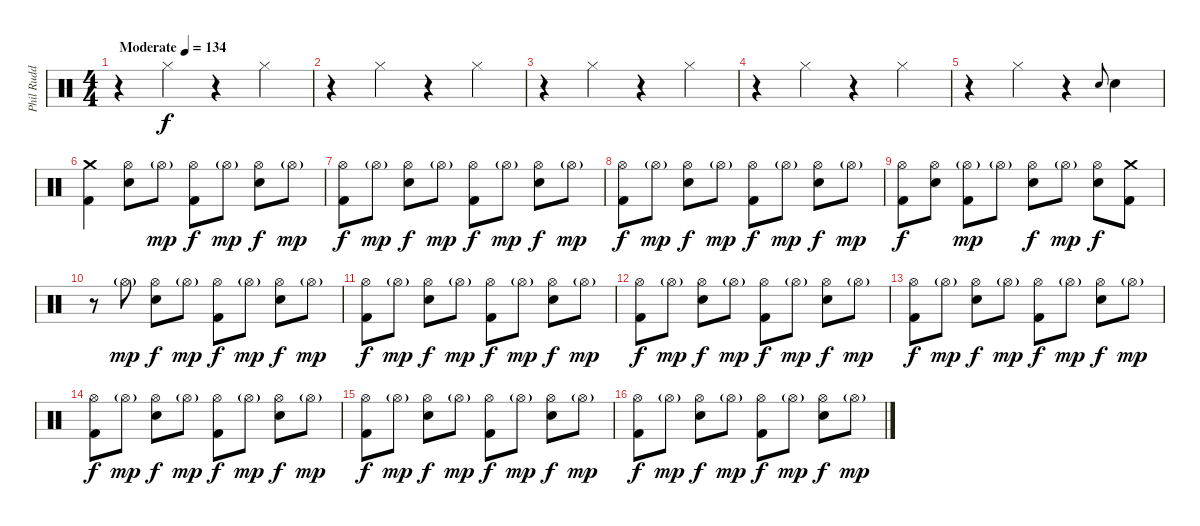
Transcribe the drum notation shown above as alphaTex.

\track ("Phil Rudd" "Phil Rudd") {instrument percussion}
\staff {score}
\articulation defaults
\ts (4 4)
\tempo (134 "Moderate")
\clef neutral
\ks c
r.4{dy f} "Hi-Hat (closed)".4 r.4 "Hi-Hat (closed)".4 |
r.4 "Hi-Hat (closed)".4 r.4 "Hi-Hat (closed)".4 |
r.4 "Hi-Hat (closed)".4 r.4 "Hi-Hat (closed)".4 |
r.4 "Hi-Hat (closed)".4 r.4 "Hi-Hat (closed)".4 |
r.4 "Hi-Hat (closed)".4 r.4 "Snare (hit) 2".8{gr onbeat} "Snare (hit) 2".4 |
("Crash medium (hit)" "Kick (hit) 2").4 ("Hi-Hat (open)" "Snare (hit) 2").8 "Hi-Hat (open)"{g}.8{dy mp} ("Hi-Hat (open)" "Kick (hit) 2").8{dy f} "Hi-Hat (open)"{g}.8{dy mp} ("Hi-Hat (open)" "Snare (hit) 2").8{dy f} "Hi-Hat (open)"{g}.8{dy mp} |
("Hi-Hat (open)" "Kick (hit) 2").8{dy f} "Hi-Hat (open)"{g}.8{dy mp} ("Hi-Hat (open)" "Snare (hit) 2").8{dy f} "Hi-Hat (open)"{g}.8{dy mp} ("Hi-Hat (open)" "Kick (hit) 2").8{dy f} "Hi-Hat (open)"{g}.8{dy mp} ("Hi-Hat (open)" "Snare (hit) 2").8{dy f} "Hi-Hat (open)"{g}.8{dy mp} |
("Hi-Hat (open)" "Kick (hit) 2").8{dy f} "Hi-Hat (open)"{g}.8{dy mp} ("Hi-Hat (open)" "Snare (hit) 2").8{dy f} "Hi-Hat (open)"{g}.8{dy mp} ("Hi-Hat (open)" "Kick (hit) 2").8{dy f} "Hi-Hat (open)"{g}.8{dy mp} ("Hi-Hat (open)" "Snare (hit) 2").8{dy f} "Hi-Hat (open)"{g}.8{dy mp} |
("Hi-Hat (open)" "Kick (hit) 2").8{dy f} ("Hi-Hat (open)" "Snare (hit) 2").8 ("Hi-Hat (open)"{g} "Kick (hit) 2").8{dy mp} "Hi-Hat (open)"{g}.8 ("Hi-Hat (open)" "Snare (hit) 2").8{dy f} "Hi-Hat (open)"{g}.8{dy mp} ("Hi-Hat (open)" "Snare (hit) 2").8{dy f} ("Crash medium (hit)" "Kick (hit) 2").8 |
r.8 "Hi-Hat (open)"{g}.8{dy mp} ("Hi-Hat (open)" "Snare (hit) 2").8{dy f} "Hi-Hat (open)"{g}.8{dy mp} ("Hi-Hat (open)" "Kick (hit) 2").8{dy f} "Hi-Hat (open)"{g}.8{dy mp} ("Hi-Hat (open)" "Snare (hit) 2").8{dy f} "Hi-Hat (open)"{g}.8{dy mp} |
("Hi-Hat (open)" "Kick (hit) 2").8{dy f} "Hi-Hat (open)"{g}.8{dy mp} ("Hi-Hat (open)" "Snare (hit) 2").8{dy f} "Hi-Hat (open)"{g}.8{dy mp} ("Hi-Hat (open)" "Kick (hit) 2").8{dy f} "Hi-Hat (open)"{g}.8{dy mp} ("Hi-Hat (open)" "Snare (hit) 2").8{dy f} "Hi-Hat (open)"{g}.8{dy mp} |
("Hi-Hat (open)" "Kick (hit) 2").8{dy f} "Hi-Hat (open)"{g}.8{dy mp} ("Hi-Hat (open)" "Snare (hit) 2").8{dy f} "Hi-Hat (open)"{g}.8{dy mp} ("Hi-Hat (open)" "Kick (hit) 2").8{dy f} "Hi-Hat (open)"{g}.8{dy mp} ("Hi-Hat (open)" "Snare (hit) 2").8{dy f} "Hi-Hat (open)"{g}.8{dy mp} |
("Hi-Hat (open)" "Kick (hit) 2").8{dy f} "Hi-Hat (open)"{g}.8{dy mp} ("Hi-Hat (open)" "Snare (hit) 2").8{dy f} "Hi-Hat (open)"{g}.8{dy mp} ("Hi-Hat (open)" "Kick (hit) 2").8{dy f} "Hi-Hat (open)"{g}.8{dy mp} ("Hi-Hat (open)" "Snare (hit) 2").8{dy f} "Hi-Hat (open)"{g}.8{dy mp} |
("Hi-Hat (open)" "Kick (hit) 2").8{dy f} "Hi-Hat (open)"{g}.8{dy mp} ("Hi-Hat (open)" "Snare (hit) 2").8{dy f} "Hi-Hat (open)"{g}.8{dy mp} ("Hi-Hat (open)" "Kick (hit) 2").8{dy f} "Hi-Hat (open)"{g}.8{dy mp} ("Hi-Hat (open)" "Snare (hit) 2").8{dy f} "Hi-Hat (open)"{g}.8{dy mp} |
("Hi-Hat (open)" "Kick (hit) 2").8{dy f} "Hi-Hat (open)"{g}.8{dy mp} ("Hi-Hat (open)" "Snare (hit) 2").8{dy f} "Hi-Hat (open)"{g}.8{dy mp} ("Hi-Hat (open)" "Kick (hit) 2").8{dy f} "Hi-Hat (open)"{g}.8{dy mp} ("Hi-Hat (open)" "Snare (hit) 2").8{dy f} "Hi-Hat (open)"{g}.8{dy mp} |
("Hi-Hat (open)" "Kick (hit) 2").8{dy f} "Hi-Hat (open)"{g}.8{dy mp} ("Hi-Hat (open)" "Snare (hit) 2").8{dy f} "Hi-Hat (open)"{g}.8{dy mp} ("Hi-Hat (open)" "Kick (hit) 2").8{dy f} "Hi-Hat (open)"{g}.8{dy mp} ("Hi-Hat (open)" "Snare (hit) 2").8{dy f} "Hi-Hat (open)"{g}.8{dy mp}
